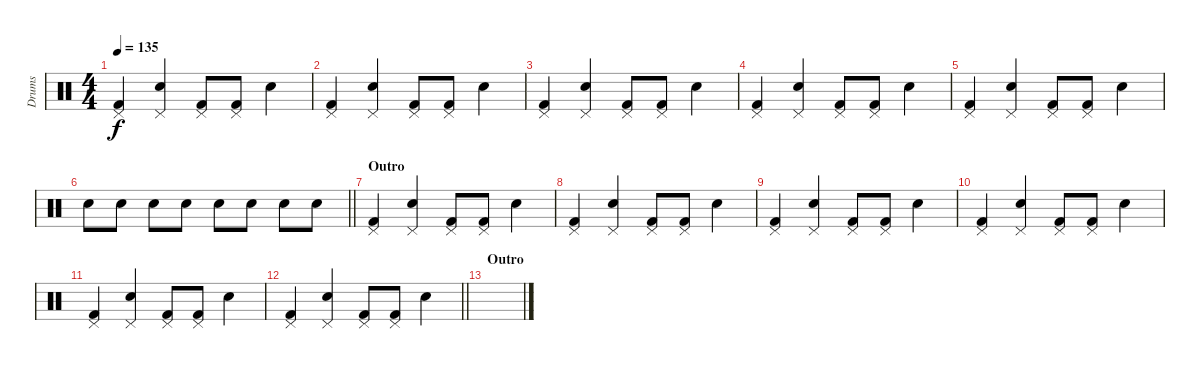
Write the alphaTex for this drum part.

\track ("Drums" "Drums") {instrument percussion}
\staff {score}
\articulation defaults
\ts (4 4)
\tempo 135
\clef neutral
\ks c
("Pedal Hi-Hat (hit)" "Kick (hit) 2").4{dy f} ("Pedal Hi-Hat (hit)" "Snare (hit) 2").4 ("Pedal Hi-Hat (hit)" "Kick (hit) 2").8 ("Pedal Hi-Hat (hit)" "Kick (hit) 2").8 "Snare (hit) 2".4 |
("Pedal Hi-Hat (hit)" "Kick (hit) 2").4 ("Pedal Hi-Hat (hit)" "Snare (hit) 2").4 ("Pedal Hi-Hat (hit)" "Kick (hit) 2").8 ("Pedal Hi-Hat (hit)" "Kick (hit) 2").8 "Snare (hit) 2".4 |
("Pedal Hi-Hat (hit)" "Kick (hit) 2").4 ("Pedal Hi-Hat (hit)" "Snare (hit) 2").4 ("Pedal Hi-Hat (hit)" "Kick (hit) 2").8 ("Pedal Hi-Hat (hit)" "Kick (hit) 2").8 "Snare (hit) 2".4 |
("Pedal Hi-Hat (hit)" "Kick (hit) 2").4 ("Pedal Hi-Hat (hit)" "Snare (hit) 2").4 ("Pedal Hi-Hat (hit)" "Kick (hit) 2").8 ("Pedal Hi-Hat (hit)" "Kick (hit) 2").8 "Snare (hit) 2".4 |
("Pedal Hi-Hat (hit)" "Kick (hit) 2").4 ("Pedal Hi-Hat (hit)" "Snare (hit) 2").4 ("Pedal Hi-Hat (hit)" "Kick (hit) 2").8 ("Pedal Hi-Hat (hit)" "Kick (hit) 2").8 "Snare (hit) 2".4 |
\barLineRight lightlight "Snare (hit) 2".8 "Snare (hit) 2".8 "Snare (hit) 2".8 "Snare (hit) 2".8 "Snare (hit) 2".8 "Snare (hit) 2".8 "Snare (hit) 2".8 "Snare (hit) 2".8
|
\section ("" "Outro")
("Pedal Hi-Hat (hit)" "Kick (hit) 2").4 ("Pedal Hi-Hat (hit)" "Snare (hit) 2").4 ("Pedal Hi-Hat (hit)" "Kick (hit) 2").8 ("Pedal Hi-Hat (hit)" "Kick (hit) 2").8 "Snare (hit) 2".4 |
("Pedal Hi-Hat (hit)" "Kick (hit) 2").4 ("Pedal Hi-Hat (hit)" "Snare (hit) 2").4 ("Pedal Hi-Hat (hit)" "Kick (hit) 2").8 ("Pedal Hi-Hat (hit)" "Kick (hit) 2").8 "Snare (hit) 2".4 |
("Pedal Hi-Hat (hit)" "Kick (hit) 2").4 ("Pedal Hi-Hat (hit)" "Snare (hit) 2").4 ("Pedal Hi-Hat (hit)" "Kick (hit) 2").8 ("Pedal Hi-Hat (hit)" "Kick (hit) 2").8 "Snare (hit) 2".4 |
("Pedal Hi-Hat (hit)" "Kick (hit) 2").4 ("Pedal Hi-Hat (hit)" "Snare (hit) 2").4 ("Pedal Hi-Hat (hit)" "Kick (hit) 2").8 ("Pedal Hi-Hat (hit)" "Kick (hit) 2").8 "Snare (hit) 2".4 |
("Pedal Hi-Hat (hit)" "Kick (hit) 2").4 ("Pedal Hi-Hat (hit)" "Snare (hit) 2").4 ("Pedal Hi-Hat (hit)" "Kick (hit) 2").8 ("Pedal Hi-Hat (hit)" "Kick (hit) 2").8 "Snare (hit) 2".4 |
\barLineRight lightlight
("Pedal Hi-Hat (hit)" "Kick (hit) 2").4 ("Pedal Hi-Hat (hit)" "Snare (hit) 2").4 ("Pedal Hi-Hat (hit)" "Kick (hit) 2").8 ("Pedal Hi-Hat (hit)" "Kick (hit) 2").8 "Snare (hit) 2".4 |
\section ("" "Outro")
